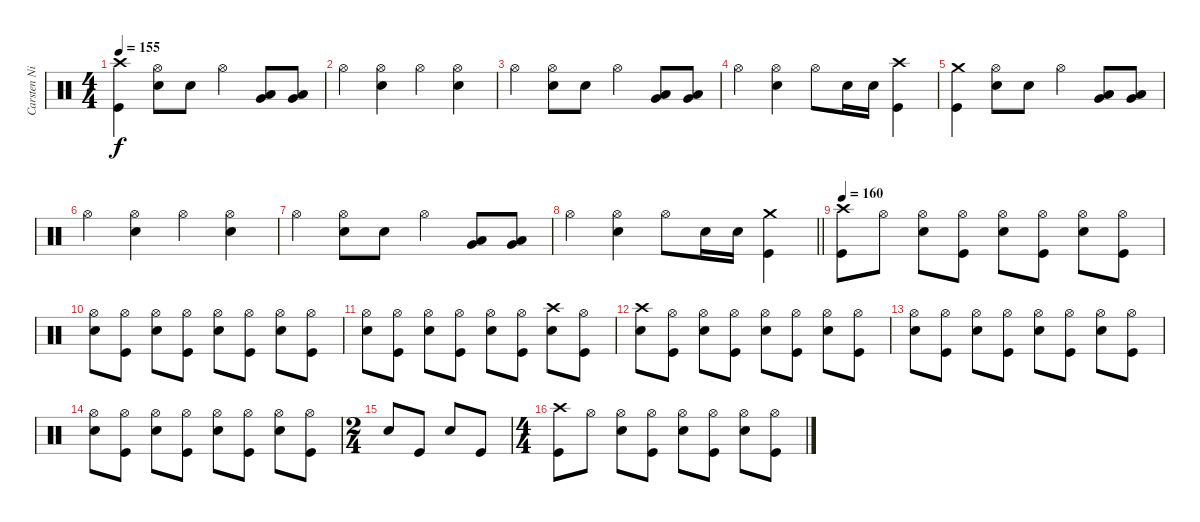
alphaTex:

\track ("Carsten Nielsen" "Carsten Ni") {instrument percussion}
\staff {score}
\articulation defaults
\ts (4 4)
\tempo 155
\clef neutral
\ks c
("Crash high (hit)" "Kick (hit)").4{dy f} ("Hi-Hat (open)" "Electric Snare (hit)").8 "Electric Snare (hit)".8 "Hi-Hat (open)".4 ("Very Low Tom (hit)" "Low Tom (hit)").8 ("Very Low Tom (hit)" "Low Tom (hit)").8 |
"Hi-Hat (open)".4 ("Hi-Hat (open)" "Electric Snare (hit)").4 "Hi-Hat (open)".4 ("Hi-Hat (open)" "Electric Snare (hit)").4 |
"Hi-Hat (open)".4 ("Hi-Hat (open)" "Electric Snare (hit)").8 "Electric Snare (hit)".8 "Hi-Hat (open)".4 ("Very Low Tom (hit)" "Low Tom (hit)").8 ("Very Low Tom (hit)" "Low Tom (hit)").8 |
"Hi-Hat (open)".4 ("Hi-Hat (open)" "Electric Snare (hit)").4 "Hi-Hat (open)".8 "Electric Snare (hit)".16 "Electric Snare (hit)".16 ("Crash high (hit)" "Kick (hit)").4 |
("Crash medium (hit)" "Kick (hit)").4 ("Hi-Hat (open)" "Electric Snare (hit)").8 "Electric Snare (hit)".8 "Hi-Hat (open)".4 ("Very Low Tom (hit)" "Low Tom (hit)").8 ("Very Low Tom (hit)" "Low Tom (hit)").8 |
"Hi-Hat (open)".4 ("Hi-Hat (open)" "Electric Snare (hit)").4 "Hi-Hat (open)".4 ("Hi-Hat (open)" "Electric Snare (hit)").4 |
"Hi-Hat (open)".4 ("Hi-Hat (open)" "Electric Snare (hit)").8 "Electric Snare (hit)".8 "Hi-Hat (open)".4 ("Very Low Tom (hit)" "Low Tom (hit)").8 ("Very Low Tom (hit)" "Low Tom (hit)").8 |
\barLineRight lightlight "Hi-Hat (open)".4
("Hi-Hat (open)" "Electric Snare (hit)").4 "Hi-Hat (open)".8 "Electric Snare (hit)".16 "Electric Snare (hit)".16 ("Crash medium (hit)" "Kick (hit)").4 |
\tempo 160
("Crash high (hit)" "Kick (hit)").8 "Hi-Hat (open)".8 ("Hi-Hat (open)" "Electric Snare (hit)").8 ("Hi-Hat (open)" "Kick (hit)").8 ("Hi-Hat (open)" "Electric Snare (hit)").8 ("Hi-Hat (open)" "Kick (hit)").8 ("Hi-Hat (open)" "Electric Snare (hit)").8 ("Hi-Hat (open)" "Kick (hit)").8 |
("Hi-Hat (open)" "Electric Snare (hit)").8 ("Hi-Hat (open)" "Kick (hit)").8 ("Hi-Hat (open)" "Electric Snare (hit)").8 ("Hi-Hat (open)" "Kick (hit)").8 ("Hi-Hat (open)" "Electric Snare (hit)").8 ("Hi-Hat (open)" "Kick (hit)").8 ("Hi-Hat (open)" "Electric Snare (hit)").8 ("Hi-Hat (open)" "Kick (hit)").8 |
("Hi-Hat (open)" "Electric Snare (hit)").8 ("Hi-Hat (open)" "Kick (hit)").8 ("Hi-Hat (open)" "Electric Snare (hit)").8 ("Hi-Hat (open)" "Kick (hit)").8 ("Hi-Hat (open)" "Electric Snare (hit)").8 ("Hi-Hat (open)" "Kick (hit)").8 ("Crash high (hit)" "Electric Snare (hit)").8 ("Hi-Hat (open)" "Kick (hit)").8 |
("Crash high (hit)" "Electric Snare (hit)").8 ("Hi-Hat (open)" "Kick (hit)").8 ("Hi-Hat (open)" "Electric Snare (hit)").8 ("Hi-Hat (open)" "Kick (hit)").8 ("Hi-Hat (open)" "Electric Snare (hit)").8 ("Hi-Hat (open)" "Kick (hit)").8 ("Hi-Hat (open)" "Electric Snare (hit)").8 ("Hi-Hat (open)" "Kick (hit)").8 |
("Hi-Hat (open)" "Electric Snare (hit)").8 ("Hi-Hat (open)" "Kick (hit)").8 ("Hi-Hat (open)" "Electric Snare (hit)").8 ("Hi-Hat (open)" "Kick (hit)").8 ("Hi-Hat (open)" "Electric Snare (hit)").8 ("Hi-Hat (open)" "Kick (hit)").8 ("Hi-Hat (open)" "Electric Snare (hit)").8 ("Hi-Hat (open)" "Kick (hit)").8 |
("Hi-Hat (open)" "Electric Snare (hit)").8 ("Hi-Hat (open)" "Kick (hit)").8 ("Hi-Hat (open)" "Electric Snare (hit)").8 ("Hi-Hat (open)" "Kick (hit)").8 ("Hi-Hat (open)" "Electric Snare (hit)").8 ("Hi-Hat (open)" "Kick (hit)").8 ("Hi-Hat (open)" "Electric Snare (hit)").8 ("Hi-Hat (open)" "Kick (hit)").8 |
\ts (2 4)
"Electric Snare (hit)".8 "Kick (hit)".8 "Electric Snare (hit)".8 "Kick (hit)".8 |
\ts (4 4)
("Crash high (hit)" "Kick (hit)").8 "Hi-Hat (open)".8 ("Hi-Hat (open)" "Electric Snare (hit)").8 ("Hi-Hat (open)" "Kick (hit)").8 ("Hi-Hat (open)" "Electric Snare (hit)").8 ("Hi-Hat (open)" "Kick (hit)").8 ("Hi-Hat (open)" "Electric Snare (hit)").8 ("Hi-Hat (open)" "Kick (hit)").8
